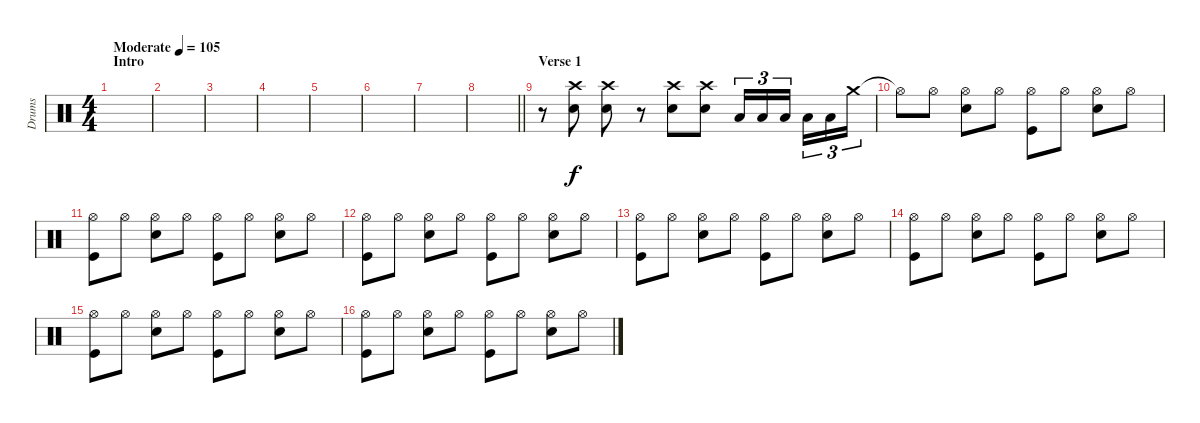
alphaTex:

\track ("Drums" "Drums") {instrument percussion}
\staff {score}
\articulation defaults
\ts (4 4)
\section ("" "Intro")
\tempo (105 "Moderate")
\clef neutral
\ks c
|
|
|
|
|
|
|
\barLineRight lightlight
|
\section ("" "Verse 1")
r.8 ("Electric Snare (hit)" "Crash high (hit)").8 ("Electric Snare (hit)" "Crash high (hit)").8 r.8 ("Electric Snare (hit)" "Crash high (hit)").8 ("Electric Snare (hit)" "Crash high (hit)").8 "Low Tom (hit)".16{tu (3 2)} "Low Tom (hit)".16{tu (3 2)} "Low Tom (hit)".16{tu (3 2) beam splitsecondary} "Low Tom (hit)".16{tu (3 2)} "Low Tom (hit)".16{tu (3 2)} "Crash medium (hit)".16{tu (3 2)} |
"Hi-Hat (open)"{t}.8 "Hi-Hat (open)".8 ("Electric Snare (hit)" "Hi-Hat (open)").8 "Hi-Hat (open)".8 ("Kick (hit)" "Hi-Hat (open)").8 "Hi-Hat (open)".8 ("Electric Snare (hit)" "Hi-Hat (open)").8 "Hi-Hat (open)".8 |
("Kick (hit)" "Hi-Hat (open)").8 "Hi-Hat (open)".8 ("Electric Snare (hit)" "Hi-Hat (open)").8 "Hi-Hat (open)".8 ("Kick (hit)" "Hi-Hat (open)").8 "Hi-Hat (open)".8 ("Electric Snare (hit)" "Hi-Hat (open)").8 "Hi-Hat (open)".8 |
("Kick (hit)" "Hi-Hat (open)").8 "Hi-Hat (open)".8 ("Electric Snare (hit)" "Hi-Hat (open)").8 "Hi-Hat (open)".8 ("Kick (hit)" "Hi-Hat (open)").8 "Hi-Hat (open)".8 ("Electric Snare (hit)" "Hi-Hat (open)").8 "Hi-Hat (open)".8 |
("Kick (hit)" "Hi-Hat (open)").8 "Hi-Hat (open)".8 ("Electric Snare (hit)" "Hi-Hat (open)").8 "Hi-Hat (open)".8 ("Kick (hit)" "Hi-Hat (open)").8 "Hi-Hat (open)".8 ("Electric Snare (hit)" "Hi-Hat (open)").8 "Hi-Hat (open)".8 |
("Kick (hit)" "Hi-Hat (open)").8 "Hi-Hat (open)".8 ("Electric Snare (hit)" "Hi-Hat (open)").8 "Hi-Hat (open)".8 ("Kick (hit)" "Hi-Hat (open)").8 "Hi-Hat (open)".8 ("Electric Snare (hit)" "Hi-Hat (open)").8 "Hi-Hat (open)".8 |
("Kick (hit)" "Hi-Hat (open)").8 "Hi-Hat (open)".8 ("Electric Snare (hit)" "Hi-Hat (open)").8 "Hi-Hat (open)".8 ("Kick (hit)" "Hi-Hat (open)").8 "Hi-Hat (open)".8 ("Electric Snare (hit)" "Hi-Hat (open)").8 "Hi-Hat (open)".8 |
("Kick (hit)" "Hi-Hat (open)").8 "Hi-Hat (open)".8 ("Electric Snare (hit)" "Hi-Hat (open)").8 "Hi-Hat (open)".8 ("Kick (hit)" "Hi-Hat (open)").8 "Hi-Hat (open)".8 ("Electric Snare (hit)" "Hi-Hat (open)").8 "Hi-Hat (open)".8
